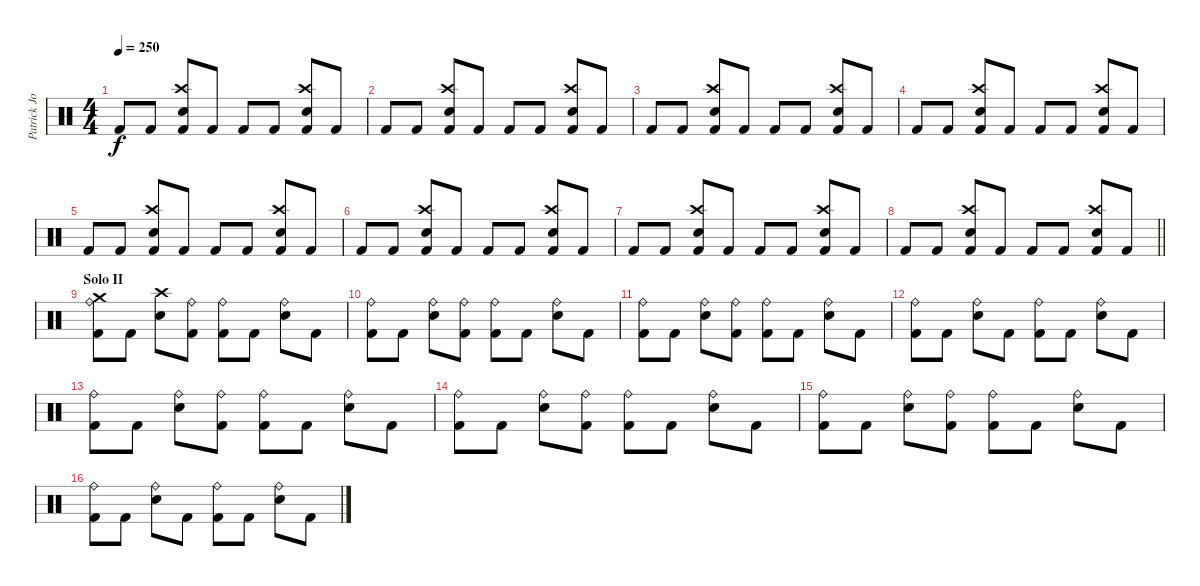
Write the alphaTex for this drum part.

\track ("Patrick Johansson" "Patrick Jo") {instrument percussion}
\staff {score}
\articulation defaults
\ts (4 4)
\tempo 250
\clef neutral
\ks c "Kick (hit) 2".8{dy f} "Kick (hit) 2".8
("Crash high (hit)" "Snare (hit) 2" "Kick (hit) 2").8 "Kick (hit) 2".8 "Kick (hit) 2".8 "Kick (hit) 2".8 ("Crash high (hit)" "Snare (hit) 2" "Kick (hit) 2").8 "Kick (hit) 2".8 |
"Kick (hit) 2".8 "Kick (hit) 2".8 ("Crash high (hit)" "Snare (hit) 2" "Kick (hit) 2").8 "Kick (hit) 2".8 "Kick (hit) 2".8 "Kick (hit) 2".8 ("Crash high (hit)" "Snare (hit) 2" "Kick (hit) 2").8 "Kick (hit) 2".8 |
"Kick (hit) 2".8 "Kick (hit) 2".8 ("Crash high (hit)" "Snare (hit) 2" "Kick (hit) 2").8 "Kick (hit) 2".8 "Kick (hit) 2".8 "Kick (hit) 2".8 ("Crash high (hit)" "Snare (hit) 2" "Kick (hit) 2").8 "Kick (hit) 2".8 |
"Kick (hit) 2".8 "Kick (hit) 2".8 ("Crash high (hit)" "Snare (hit) 2" "Kick (hit) 2").8 "Kick (hit) 2".8 "Kick (hit) 2".8 "Kick (hit) 2".8 ("Crash high (hit)" "Snare (hit) 2" "Kick (hit) 2").8 "Kick (hit) 2".8 |
"Kick (hit) 2".8 "Kick (hit) 2".8 ("Crash high (hit)" "Snare (hit) 2" "Kick (hit) 2").8 "Kick (hit) 2".8 "Kick (hit) 2".8 "Kick (hit) 2".8 ("Crash high (hit)" "Snare (hit) 2" "Kick (hit) 2").8 "Kick (hit) 2".8 |
"Kick (hit) 2".8 "Kick (hit) 2".8 ("Crash high (hit)" "Snare (hit) 2" "Kick (hit) 2").8 "Kick (hit) 2".8 "Kick (hit) 2".8 "Kick (hit) 2".8 ("Crash high (hit)" "Snare (hit) 2" "Kick (hit) 2").8 "Kick (hit) 2".8 |
"Kick (hit) 2".8 "Kick (hit) 2".8 ("Crash high (hit)" "Snare (hit) 2" "Kick (hit) 2").8 "Kick (hit) 2".8 "Kick (hit) 2".8 "Kick (hit) 2".8 ("Crash high (hit)" "Snare (hit) 2" "Kick (hit) 2").8 "Kick (hit) 2".8 |
\barLineRight lightlight "Kick (hit) 2".8 "Kick (hit) 2".8
("Crash high (hit)" "Snare (hit) 2" "Kick (hit) 2").8 "Kick (hit) 2".8 "Kick (hit) 2".8 "Kick (hit) 2".8 ("Crash high (hit)" "Snare (hit) 2" "Kick (hit) 2").8 "Kick (hit) 2".8 |
\section ("" "Solo II")
("Crash medium (hit)" "Ride (bell)" "Kick (hit) 2").8 "Kick (hit) 2".8 ("Crash high (hit)" "Snare (hit) 2").8 ("Ride (bell)" "Kick (hit) 2").8 ("Ride (bell)" "Kick (hit) 2").8 "Kick (hit) 2".8 ("Ride (bell)" "Snare (hit) 2").8 "Kick (hit) 2".8 |
("Ride (bell)" "Kick (hit) 2").8 "Kick (hit) 2".8 ("Ride (bell)" "Snare (hit) 2").8 ("Ride (bell)" "Kick (hit) 2").8 ("Ride (bell)" "Kick (hit) 2").8 "Kick (hit) 2".8 ("Ride (bell)" "Snare (hit) 2").8 "Kick (hit) 2".8 |
("Ride (bell)" "Kick (hit) 2").8 "Kick (hit) 2".8 ("Ride (bell)" "Snare (hit) 2").8 ("Ride (bell)" "Kick (hit) 2").8 ("Ride (bell)" "Kick (hit) 2").8 "Kick (hit) 2".8 ("Ride (bell)" "Snare (hit) 2").8 "Kick (hit) 2".8 |
("Ride (bell)" "Kick (hit) 2").8 "Kick (hit) 2".8 ("Ride (bell)" "Snare (hit) 2").8 "Kick (hit) 2".8 ("Ride (bell)" "Kick (hit) 2").8 "Kick (hit) 2".8 ("Ride (bell)" "Snare (hit) 2").8 "Kick (hit) 2".8 |
("Ride (bell)" "Kick (hit) 2").8 "Kick (hit) 2".8 ("Ride (bell)" "Snare (hit) 2").8 ("Ride (bell)" "Kick (hit) 2").8 ("Ride (bell)" "Kick (hit) 2").8 "Kick (hit) 2".8 ("Ride (bell)" "Snare (hit) 2").8 "Kick (hit) 2".8 |
("Ride (bell)" "Kick (hit) 2").8 "Kick (hit) 2".8 ("Ride (bell)" "Snare (hit) 2").8 ("Ride (bell)" "Kick (hit) 2").8 ("Ride (bell)" "Kick (hit) 2").8 "Kick (hit) 2".8 ("Ride (bell)" "Snare (hit) 2").8 "Kick (hit) 2".8 |
("Ride (bell)" "Kick (hit) 2").8 "Kick (hit) 2".8 ("Ride (bell)" "Snare (hit) 2").8 ("Ride (bell)" "Kick (hit) 2").8 ("Ride (bell)" "Kick (hit) 2").8 "Kick (hit) 2".8 ("Ride (bell)" "Snare (hit) 2").8 "Kick (hit) 2".8 |
("Ride (bell)" "Kick (hit) 2").8 "Kick (hit) 2".8 ("Ride (bell)" "Snare (hit) 2").8 "Kick (hit) 2".8 ("Ride (bell)" "Kick (hit) 2").8 "Kick (hit) 2".8 ("Ride (bell)" "Snare (hit) 2").8 "Kick (hit) 2".8
